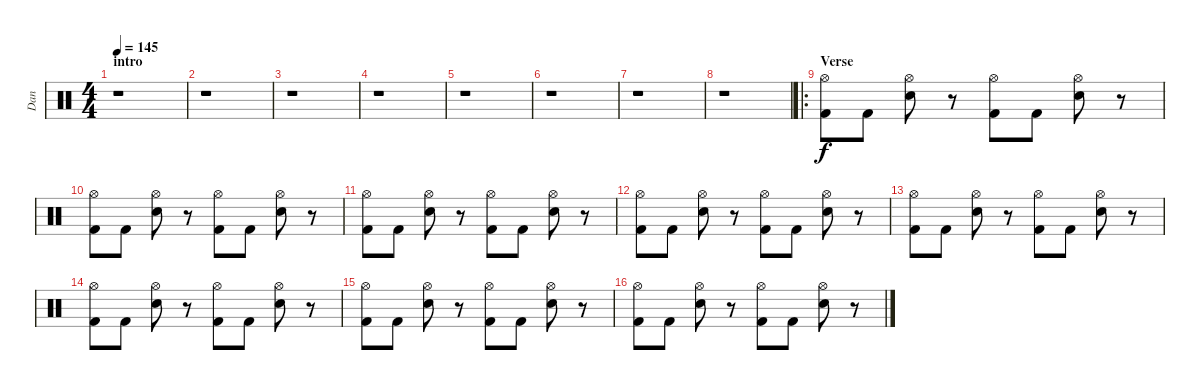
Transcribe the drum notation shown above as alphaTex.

\track ("Dan" "Dan") {instrument percussion}
\staff {score}
\articulation defaults
\ts (4 4)
\section ("" "intro")
\tempo 145
\clef neutral
\ks c
r.1{dy f} |
r.1 |
r.1 |
r.1 |
r.1 |
r.1 |
r.1 |
r.1 |
\ro
\section ("" "Verse")
("Hi-Hat (open)" "Kick (hit) 2").8 "Kick (hit) 2".8 ("Hi-Hat (open)" "Snare (hit) 2").8 r.8 ("Hi-Hat (open)" "Kick (hit) 2").8 "Kick (hit) 2".8 ("Hi-Hat (open)" "Snare (hit) 2").8 r.8 |
("Hi-Hat (open)" "Kick (hit) 2").8 "Kick (hit) 2".8 ("Hi-Hat (open)" "Snare (hit) 2").8 r.8 ("Hi-Hat (open)" "Kick (hit) 2").8 "Kick (hit) 2".8 ("Hi-Hat (open)" "Snare (hit) 2").8 r.8 |
("Hi-Hat (open)" "Kick (hit) 2").8 "Kick (hit) 2".8 ("Hi-Hat (open)" "Snare (hit) 2").8 r.8 ("Hi-Hat (open)" "Kick (hit) 2").8 "Kick (hit) 2".8 ("Hi-Hat (open)" "Snare (hit) 2").8 r.8 |
("Hi-Hat (open)" "Kick (hit) 2").8 "Kick (hit) 2".8 ("Hi-Hat (open)" "Snare (hit) 2").8 r.8 ("Hi-Hat (open)" "Kick (hit) 2").8 "Kick (hit) 2".8 ("Hi-Hat (open)" "Snare (hit) 2").8 r.8 |
("Hi-Hat (open)" "Kick (hit) 2").8 "Kick (hit) 2".8 ("Hi-Hat (open)" "Snare (hit) 2").8 r.8 ("Hi-Hat (open)" "Kick (hit) 2").8 "Kick (hit) 2".8 ("Hi-Hat (open)" "Snare (hit) 2").8 r.8 |
("Hi-Hat (open)" "Kick (hit) 2").8 "Kick (hit) 2".8 ("Hi-Hat (open)" "Snare (hit) 2").8 r.8 ("Hi-Hat (open)" "Kick (hit) 2").8 "Kick (hit) 2".8 ("Hi-Hat (open)" "Snare (hit) 2").8 r.8 |
("Hi-Hat (open)" "Kick (hit) 2").8 "Kick (hit) 2".8 ("Hi-Hat (open)" "Snare (hit) 2").8 r.8 ("Hi-Hat (open)" "Kick (hit) 2").8 "Kick (hit) 2".8 ("Hi-Hat (open)" "Snare (hit) 2").8 r.8 |
("Hi-Hat (open)" "Kick (hit) 2").8 "Kick (hit) 2".8 ("Hi-Hat (open)" "Snare (hit) 2").8 r.8 ("Hi-Hat (open)" "Kick (hit) 2").8 "Kick (hit) 2".8 ("Hi-Hat (open)" "Snare (hit) 2").8 r.8
